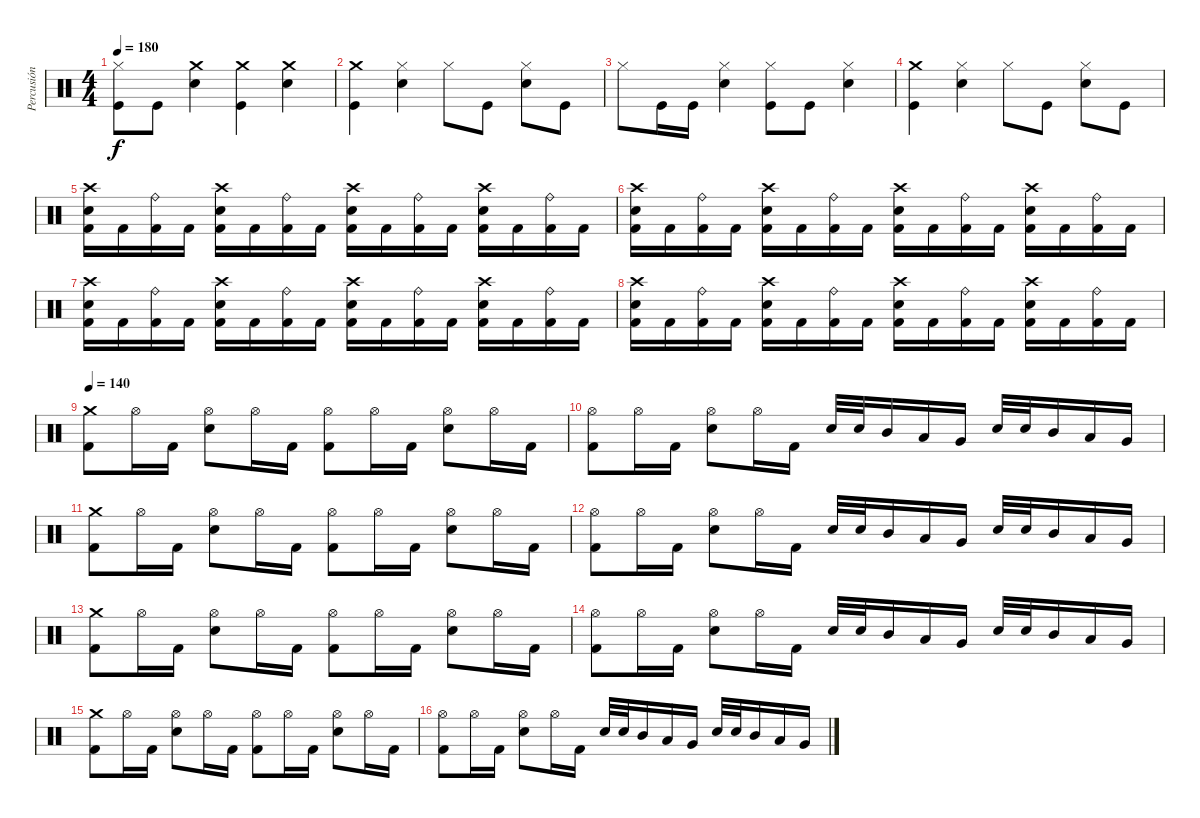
\track ("Percusión" "Percusión") {instrument percussion}
\staff {score}
\articulation defaults
\ts (4 4)
\tempo 180
\clef neutral
\ks c
("Kick (hit)" "Hi-Hat (closed)").8{dy f} "Kick (hit)".8 ("Crash medium (hit)" "Snare (hit) 2").4 ("Kick (hit)" "Crash medium (hit)").4 ("Snare (hit) 2" "Crash medium (hit)").4 |
("Kick (hit)" "Crash medium (hit)").4 ("Snare (hit) 2" "Hi-Hat (closed)").4 "Hi-Hat (closed)".8 "Kick (hit)".8 ("Snare (hit) 2" "Hi-Hat (closed)").8 "Kick (hit)".8 |
"Hi-Hat (closed)".8 "Kick (hit)".16 "Kick (hit)".16 ("Snare (hit) 2" "Hi-Hat (closed)").4 ("Kick (hit)" "Hi-Hat (closed)").8 "Kick (hit)".8 ("Snare (hit) 2" "Hi-Hat (closed)").4 |
("Kick (hit)" "Crash medium (hit)").4 ("Hi-Hat (closed)" "Snare (hit) 2").4 "Hi-Hat (closed)".8 "Kick (hit)".8 ("Snare (hit) 2" "Hi-Hat (closed)").8 "Kick (hit)".8 |
("Snare (hit) 2" "Crash high (hit)" "Kick (hit) 2").16 "Kick (hit) 2".16 ("Ride (bell)" "Kick (hit) 2").16 "Kick (hit) 2".16 ("Snare (hit) 2" "Crash high (hit)" "Kick (hit) 2").16 "Kick (hit) 2".16 ("Ride (bell)" "Kick (hit) 2").16 "Kick (hit) 2".16 ("Snare (hit) 2" "Crash high (hit)" "Kick (hit) 2").16 "Kick (hit) 2".16 ("Ride (bell)" "Kick (hit) 2").16 "Kick (hit) 2".16 ("Snare (hit) 2" "Crash high (hit)" "Kick (hit) 2").16 "Kick (hit) 2".16 ("Ride (bell)" "Kick (hit) 2").16 "Kick (hit) 2".16 |
("Snare (hit) 2" "Crash high (hit)" "Kick (hit) 2").16 "Kick (hit) 2".16 ("Ride (bell)" "Kick (hit) 2").16 "Kick (hit) 2".16 ("Snare (hit) 2" "Crash high (hit)" "Kick (hit) 2").16 "Kick (hit) 2".16 ("Ride (bell)" "Kick (hit) 2").16 "Kick (hit) 2".16 ("Snare (hit) 2" "Crash high (hit)" "Kick (hit) 2").16 "Kick (hit) 2".16 ("Ride (bell)" "Kick (hit) 2").16 "Kick (hit) 2".16 ("Snare (hit) 2" "Crash high (hit)" "Kick (hit) 2").16 "Kick (hit) 2".16 ("Ride (bell)" "Kick (hit) 2").16 "Kick (hit) 2".16 |
("Snare (hit) 2" "Crash high (hit)" "Kick (hit) 2").16 "Kick (hit) 2".16 ("Ride (bell)" "Kick (hit) 2").16 "Kick (hit) 2".16 ("Snare (hit) 2" "Crash high (hit)" "Kick (hit) 2").16 "Kick (hit) 2".16 ("Ride (bell)" "Kick (hit) 2").16 "Kick (hit) 2".16 ("Snare (hit) 2" "Crash high (hit)" "Kick (hit) 2").16 "Kick (hit) 2".16 ("Ride (bell)" "Kick (hit) 2").16 "Kick (hit) 2".16 ("Snare (hit) 2" "Crash high (hit)" "Kick (hit) 2").16 "Kick (hit) 2".16 ("Ride (bell)" "Kick (hit) 2").16 "Kick (hit) 2".16 |
("Snare (hit) 2" "Crash high (hit)" "Kick (hit) 2").16 "Kick (hit) 2".16 ("Ride (bell)" "Kick (hit) 2").16 "Kick (hit) 2".16 ("Snare (hit) 2" "Crash high (hit)" "Kick (hit) 2").16 "Kick (hit) 2".16 ("Ride (bell)" "Kick (hit) 2").16 "Kick (hit) 2".16 ("Snare (hit) 2" "Crash high (hit)" "Kick (hit) 2").16 "Kick (hit) 2".16 ("Ride (bell)" "Kick (hit) 2").16 "Kick (hit) 2".16 ("Snare (hit) 2" "Crash high (hit)" "Kick (hit) 2").16 "Kick (hit) 2".16 ("Ride (bell)" "Kick (hit) 2").16 "Kick (hit) 2".16 |
\tempo 140
("Crash medium (hit)" "Kick (hit) 2").8 "Hi-Hat (open)".16 "Kick (hit) 2".16 ("Hi-Hat (open)" "Snare (hit) 2").8 "Hi-Hat (open)".16 "Kick (hit) 2".16 ("Hi-Hat (open)" "Kick (hit) 2").8 "Hi-Hat (open)".16 "Kick (hit) 2".16 ("Hi-Hat (open)" "Snare (hit) 2").8 "Hi-Hat (open)".16 "Kick (hit) 2".16 |
("Hi-Hat (open)" "Kick (hit) 2").8 "Hi-Hat (open)".16 "Kick (hit) 2".16 ("Hi-Hat (open)" "Snare (hit) 2").8 "Hi-Hat (open)".16 "Kick (hit) 2".16 "Snare (hit) 2".32 "Snare (hit) 2".32 "Mid Tom (hit)".16 "Low Tom (hit)".16 "Very Low Tom (hit)".16 "Snare (hit) 2".32 "Snare (hit) 2".32 "Mid Tom (hit)".16 "Low Tom (hit)".16 "Very Low Tom (hit)".16 |
("Crash medium (hit)" "Kick (hit) 2").8 "Hi-Hat (open)".16 "Kick (hit) 2".16 ("Hi-Hat (open)" "Snare (hit) 2").8 "Hi-Hat (open)".16 "Kick (hit) 2".16 ("Hi-Hat (open)" "Kick (hit) 2").8 "Hi-Hat (open)".16 "Kick (hit) 2".16 ("Hi-Hat (open)" "Snare (hit) 2").8 "Hi-Hat (open)".16 "Kick (hit) 2".16 |
("Hi-Hat (open)" "Kick (hit) 2").8 "Hi-Hat (open)".16 "Kick (hit) 2".16 ("Hi-Hat (open)" "Snare (hit) 2").8 "Hi-Hat (open)".16 "Kick (hit) 2".16 "Snare (hit) 2".32 "Snare (hit) 2".32 "Mid Tom (hit)".16 "Low Tom (hit)".16 "Very Low Tom (hit)".16 "Snare (hit) 2".32 "Snare (hit) 2".32 "Mid Tom (hit)".16 "Low Tom (hit)".16 "Very Low Tom (hit)".16 |
("Crash medium (hit)" "Kick (hit) 2").8 "Hi-Hat (open)".16 "Kick (hit) 2".16 ("Hi-Hat (open)" "Snare (hit) 2").8 "Hi-Hat (open)".16 "Kick (hit) 2".16 ("Hi-Hat (open)" "Kick (hit) 2").8 "Hi-Hat (open)".16 "Kick (hit) 2".16 ("Hi-Hat (open)" "Snare (hit) 2").8 "Hi-Hat (open)".16 "Kick (hit) 2".16 |
("Hi-Hat (open)" "Kick (hit) 2").8 "Hi-Hat (open)".16 "Kick (hit) 2".16 ("Hi-Hat (open)" "Snare (hit) 2").8 "Hi-Hat (open)".16 "Kick (hit) 2".16 "Snare (hit) 2".32 "Snare (hit) 2".32 "Mid Tom (hit)".16 "Low Tom (hit)".16 "Very Low Tom (hit)".16 "Snare (hit) 2".32 "Snare (hit) 2".32 "Mid Tom (hit)".16 "Low Tom (hit)".16 "Very Low Tom (hit)".16 |
("Crash medium (hit)" "Kick (hit) 2").8 "Hi-Hat (open)".16 "Kick (hit) 2".16 ("Hi-Hat (open)" "Snare (hit) 2").8 "Hi-Hat (open)".16 "Kick (hit) 2".16 ("Hi-Hat (open)" "Kick (hit) 2").8 "Hi-Hat (open)".16 "Kick (hit) 2".16 ("Hi-Hat (open)" "Snare (hit) 2").8 "Hi-Hat (open)".16 "Kick (hit) 2".16 |
("Hi-Hat (open)" "Kick (hit) 2").8 "Hi-Hat (open)".16 "Kick (hit) 2".16 ("Hi-Hat (open)" "Snare (hit) 2").8 "Hi-Hat (open)".16 "Kick (hit) 2".16 "Snare (hit) 2".32 "Snare (hit) 2".32 "Mid Tom (hit)".16 "Low Tom (hit)".16 "Very Low Tom (hit)".16 "Snare (hit) 2".32 "Snare (hit) 2".32 "Mid Tom (hit)".16 "Low Tom (hit)".16 "Very Low Tom (hit)".16
